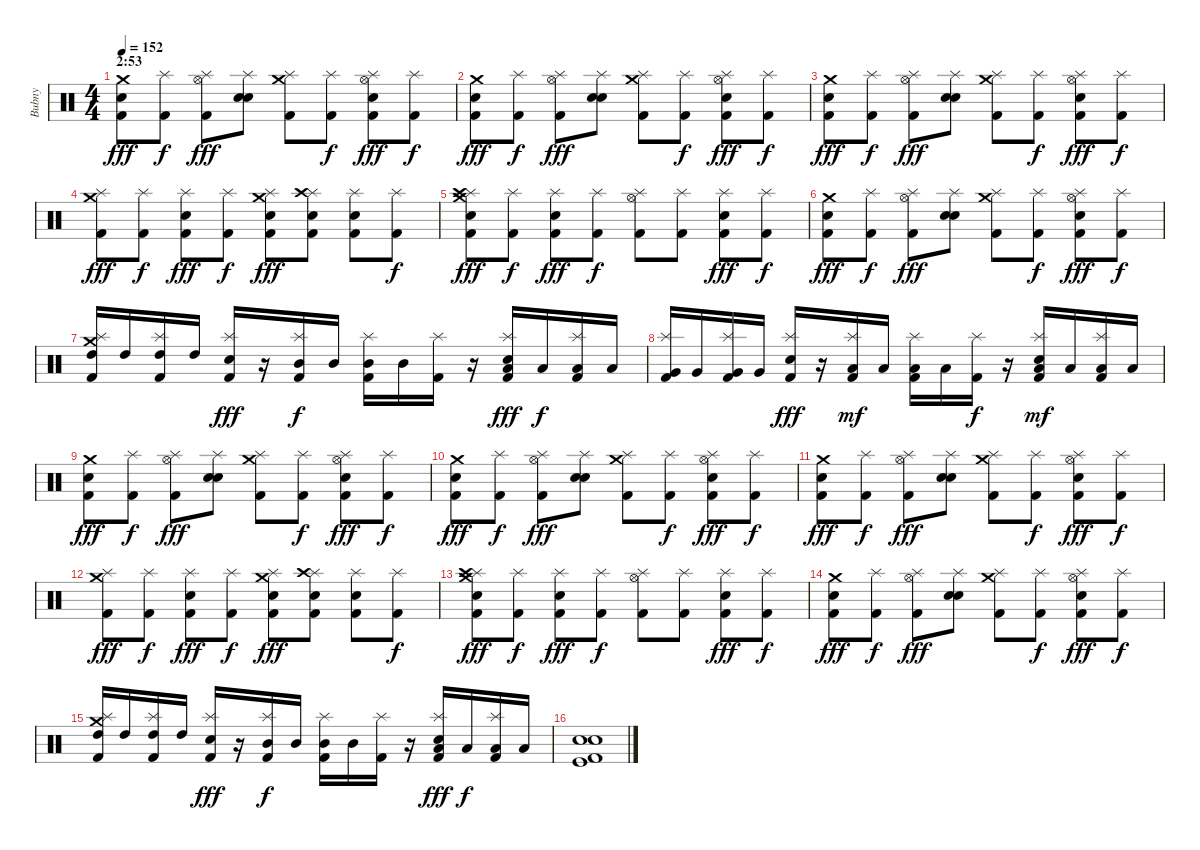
\track ("Bubny" "Bubny") {instrument percussion}
\staff {score}
\articulation defaults
\ts (4 4)
\section ("" "2:53")
\tempo 152
\clef neutral
\ks c
("Kick (hit) 2" "Electric Snare (hit)" "Crash medium (hit)").8{dy fff} ("Splash (hit)" "Kick (hit) 2").8{dy f} ("Splash (hit)" "Kick (hit) 2" "Hi-Hat (open)").8{dy fff} ("Splash (hit)" "Electric Snare (hit)" "Snare (hit) 2").8 ("Splash (hit)" "Kick (hit) 2" "Crash medium (hit)").8 ("Splash (hit)" "Kick (hit) 2").8{dy f} ("Splash (hit)" "Kick (hit) 2" "Snare (hit) 2" "Hi-Hat (open)").8{dy fff} ("Splash (hit)" "Kick (hit) 2").8{dy f} |
("Kick (hit) 2" "Electric Snare (hit)" "Crash medium (hit)").8{dy fff} ("Splash (hit)" "Kick (hit) 2").8{dy f} ("Splash (hit)" "Kick (hit) 2" "Hi-Hat (open)").8{dy fff} ("Splash (hit)" "Electric Snare (hit)" "Snare (hit) 2").8 ("Splash (hit)" "Kick (hit) 2" "Crash medium (hit)").8 ("Splash (hit)" "Kick (hit) 2").8{dy f} ("Splash (hit)" "Kick (hit) 2" "Snare (hit) 2" "Hi-Hat (open)").8{dy fff} ("Splash (hit)" "Kick (hit) 2").8{dy f} |
("Kick (hit) 2" "Electric Snare (hit)" "Crash medium (hit)").8{dy fff} ("Splash (hit)" "Kick (hit) 2").8{dy f} ("Splash (hit)" "Kick (hit) 2" "Hi-Hat (open)").8{dy fff} ("Splash (hit)" "Electric Snare (hit)" "Snare (hit) 2").8 ("Splash (hit)" "Kick (hit) 2" "Crash medium (hit)").8 ("Splash (hit)" "Kick (hit) 2").8{dy f} ("Splash (hit)" "Kick (hit) 2" "Snare (hit) 2" "Hi-Hat (open)").8{dy fff} ("Splash (hit)" "Kick (hit) 2").8{dy f} |
("Splash (hit)" "Kick (hit) 2" "Crash medium (hit)").8{dy fff} ("Splash (hit)" "Kick (hit) 2").8{dy f} ("Splash (hit)" "Kick (hit) 2" "Snare (hit) 2").8{dy fff} ("Splash (hit)" "Kick (hit) 2").8{dy f} ("Splash (hit)" "Kick (hit) 2" "Crash medium (hit)" "Snare (hit) 2").8{dy fff} ("Splash (hit)" "Kick (hit) 2" "Crash high (hit)" "Snare (hit) 2").8 ("Splash (hit)" "Kick (hit) 2" "Snare (hit) 2").8 ("Splash (hit)" "Kick (hit) 2").8{dy f} |
("Splash (hit)" "Kick (hit) 2" "Crash high (hit)" "Snare (hit) 2" "Crash medium (hit)").8{dy fff} ("Splash (hit)" "Kick (hit) 2").8{dy f} ("Splash (hit)" "Kick (hit) 2" "Snare (hit) 2").8{dy fff} ("Splash (hit)" "Kick (hit) 2").8{dy f} ("Splash (hit)" "Kick (hit) 2" "Hi-Hat (open)").8 ("Splash (hit)" "Kick (hit) 2").8 ("Splash (hit)" "Kick (hit) 2" "Snare (hit) 2").8{dy fff} ("Splash (hit)" "Kick (hit) 2").8{dy f} |
("Kick (hit) 2" "Electric Snare (hit)" "Crash medium (hit)").8{dy fff} ("Splash (hit)" "Kick (hit) 2").8{dy f} ("Splash (hit)" "Kick (hit) 2" "Hi-Hat (open)").8{dy fff} ("Splash (hit)" "Electric Snare (hit)" "Snare (hit) 2").8 ("Splash (hit)" "Kick (hit) 2" "Crash medium (hit)").8 ("Splash (hit)" "Kick (hit) 2").8{dy f} ("Splash (hit)" "Kick (hit) 2" "Snare (hit) 2" "Hi-Hat (open)").8{dy fff} ("Splash (hit)" "Kick (hit) 2").8{dy f} |
("Splash (hit)" "Kick (hit) 2" "High Tom (hit)" "Crash medium (hit)").16 "High Tom (hit)".16 ("Splash (hit)" "Kick (hit) 2" "High Tom (hit)").16 "High Tom (hit)".16 ("Splash (hit)" "Kick (hit) 2" "Snare (hit) 2").16{dy fff} r.16 ("Splash (hit)" "Kick (hit) 2" "Mid Tom (hit)").16{dy f} "Mid Tom (hit)".16 ("Splash (hit)" "Kick (hit) 2" "Mid Tom (hit)").16 "Mid Tom (hit)".16 ("Splash (hit)" "Kick (hit) 2").16 r.16 ("Splash (hit)" "Kick (hit) 2" "Snare (hit) 2" "Low Tom (hit)").16{dy fff} "Low Tom (hit)".16{dy f} ("Splash (hit)" "Kick (hit) 2" "Low Tom (hit)").16 "Low Tom (hit)".16 |
("Splash (hit)" "Kick (hit) 2" "Very Low Tom (hit)").16 "Very Low Tom (hit)".16 ("Splash (hit)" "Kick (hit) 2" "Very Low Tom (hit)").16 "Very Low Tom (hit)".16 ("Splash (hit)" "Kick (hit) 2" "Snare (hit) 2").16{dy fff} r.16 ("Splash (hit)" "Kick (hit) 2" "Low Floor Tom (hit)").16{dy mf} "Low Floor Tom (hit)".16 ("Splash (hit)" "Kick (hit) 2" "Low Floor Tom (hit)").16 "Low Floor Tom (hit)".16 ("Splash (hit)" "Kick (hit) 2").16{dy f} r.16 ("Splash (hit)" "Kick (hit) 2" "Snare (hit) 2" "Low Floor Tom (hit)").16{dy mf} "Low Floor Tom (hit)".16 ("Splash (hit)" "Kick (hit) 2" "Low Floor Tom (hit)").16 "Low Floor Tom (hit)".16 |
("Kick (hit) 2" "Electric Snare (hit)" "Crash medium (hit)").8{dy fff} ("Splash (hit)" "Kick (hit) 2").8{dy f} ("Splash (hit)" "Kick (hit) 2" "Hi-Hat (open)").8{dy fff} ("Splash (hit)" "Electric Snare (hit)" "Snare (hit) 2").8 ("Splash (hit)" "Kick (hit) 2" "Crash medium (hit)").8 ("Splash (hit)" "Kick (hit) 2").8{dy f} ("Splash (hit)" "Kick (hit) 2" "Snare (hit) 2" "Hi-Hat (open)").8{dy fff} ("Splash (hit)" "Kick (hit) 2").8{dy f} |
("Kick (hit) 2" "Electric Snare (hit)" "Crash medium (hit)").8{dy fff} ("Splash (hit)" "Kick (hit) 2").8{dy f} ("Splash (hit)" "Kick (hit) 2" "Hi-Hat (open)").8{dy fff} ("Splash (hit)" "Electric Snare (hit)" "Snare (hit) 2").8 ("Splash (hit)" "Kick (hit) 2" "Crash medium (hit)").8 ("Splash (hit)" "Kick (hit) 2").8{dy f} ("Splash (hit)" "Kick (hit) 2" "Snare (hit) 2" "Hi-Hat (open)").8{dy fff} ("Splash (hit)" "Kick (hit) 2").8{dy f} |
("Kick (hit) 2" "Electric Snare (hit)" "Crash medium (hit)").8{dy fff} ("Splash (hit)" "Kick (hit) 2").8{dy f} ("Splash (hit)" "Kick (hit) 2" "Hi-Hat (open)").8{dy fff} ("Splash (hit)" "Electric Snare (hit)" "Snare (hit) 2").8 ("Splash (hit)" "Kick (hit) 2" "Crash medium (hit)").8 ("Splash (hit)" "Kick (hit) 2").8{dy f} ("Splash (hit)" "Kick (hit) 2" "Snare (hit) 2" "Hi-Hat (open)").8{dy fff} ("Splash (hit)" "Kick (hit) 2").8{dy f} |
("Splash (hit)" "Kick (hit) 2" "Crash medium (hit)").8{dy fff} ("Splash (hit)" "Kick (hit) 2").8{dy f} ("Splash (hit)" "Kick (hit) 2" "Snare (hit) 2").8{dy fff} ("Splash (hit)" "Kick (hit) 2").8{dy f} ("Splash (hit)" "Kick (hit) 2" "Crash medium (hit)" "Snare (hit) 2").8{dy fff} ("Splash (hit)" "Kick (hit) 2" "Crash high (hit)" "Snare (hit) 2").8 ("Splash (hit)" "Kick (hit) 2" "Snare (hit) 2").8 ("Splash (hit)" "Kick (hit) 2").8{dy f} |
("Splash (hit)" "Kick (hit) 2" "Crash high (hit)" "Snare (hit) 2" "Crash medium (hit)").8{dy fff} ("Splash (hit)" "Kick (hit) 2").8{dy f} ("Splash (hit)" "Kick (hit) 2" "Snare (hit) 2").8{dy fff} ("Splash (hit)" "Kick (hit) 2").8{dy f} ("Splash (hit)" "Kick (hit) 2" "Hi-Hat (open)").8 ("Splash (hit)" "Kick (hit) 2").8 ("Splash (hit)" "Kick (hit) 2" "Snare (hit) 2").8{dy fff} ("Splash (hit)" "Kick (hit) 2").8{dy f} |
("Kick (hit) 2" "Electric Snare (hit)" "Crash medium (hit)").8{dy fff} ("Splash (hit)" "Kick (hit) 2").8{dy f} ("Splash (hit)" "Kick (hit) 2" "Hi-Hat (open)").8{dy fff} ("Splash (hit)" "Electric Snare (hit)" "Snare (hit) 2").8 ("Splash (hit)" "Kick (hit) 2" "Crash medium (hit)").8 ("Splash (hit)" "Kick (hit) 2").8{dy f} ("Splash (hit)" "Kick (hit) 2" "Snare (hit) 2" "Hi-Hat (open)").8{dy fff} ("Splash (hit)" "Kick (hit) 2").8{dy f} |
("Splash (hit)" "Kick (hit) 2" "High Tom (hit)" "Crash medium (hit)").16 "High Tom (hit)".16 ("Splash (hit)" "Kick (hit) 2" "High Tom (hit)").16 "High Tom (hit)".16 ("Splash (hit)" "Kick (hit) 2" "Snare (hit) 2").16{dy fff} r.16 ("Splash (hit)" "Kick (hit) 2" "Mid Tom (hit)").16{dy f} "Mid Tom (hit)".16 ("Splash (hit)" "Kick (hit) 2" "Mid Tom (hit)").16 "Mid Tom (hit)".16 ("Splash (hit)" "Kick (hit) 2").16 r.16 ("Splash (hit)" "Kick (hit) 2" "Snare (hit) 2" "Low Tom (hit)").16{dy fff} "Low Tom (hit)".16{dy f} ("Splash (hit)" "Kick (hit) 2" "Low Tom (hit)").16 "Low Tom (hit)".16 |
("Kick (hit) 2" "Kick (hit)" "Electric Snare (hit)" "Snare (hit) 2").1
